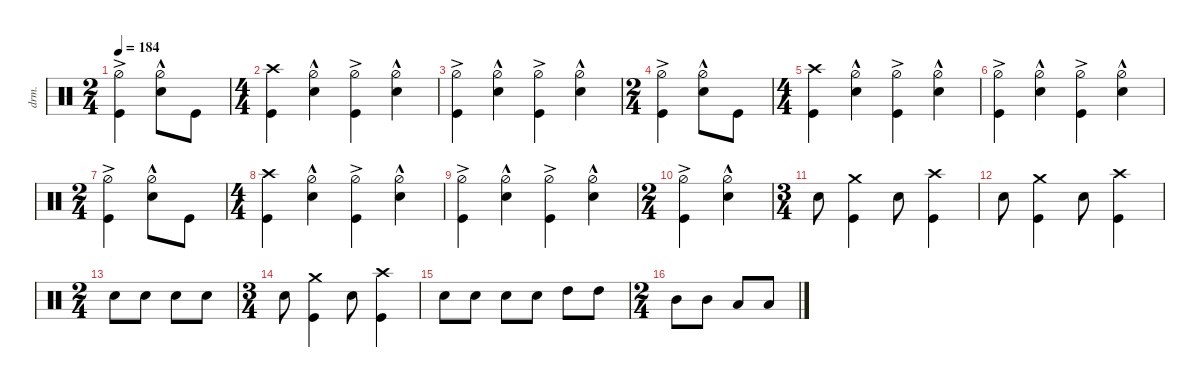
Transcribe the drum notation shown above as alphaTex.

\defaultSystemsLayout 4
\hideDynamics
\bracketExtendMode nobrackets
\otherSystemsTrackNameOrientation horizontal
\track ("Drums" "drm.") {defaultSystemsLayout 4 multiBarRest instrument percussion}
\staff {score}
\articulation defaults
\ts (2 4)
\beaming (8 2 2 2 2)
\tempo 184
\clef neutral
\ks c
("Hi-Hat (half)"{ac} "Kick (hit)").4{dy f} ("Hi-Hat (half)"{hac} "Snare (hit) 2").8 "Kick (hit)".8 |
\ts (4 4)
\beaming (8 2 2 2 2)
("Crash high (hit)" "Kick (hit)").4 ("Hi-Hat (half)"{hac} "Snare (hit) 2").4 ("Hi-Hat (half)"{ac} "Kick (hit)").4 ("Hi-Hat (half)"{hac} "Snare (hit) 2").4 |
("Hi-Hat (half)"{ac} "Kick (hit)").4 ("Hi-Hat (half)"{hac} "Snare (hit) 2").4 ("Hi-Hat (half)"{ac} "Kick (hit)").4 ("Hi-Hat (half)"{hac} "Snare (hit) 2").4 |
\ts (2 4)
\beaming (8 2 2 2 2)
("Hi-Hat (half)"{ac} "Kick (hit)").4 ("Hi-Hat (half)"{hac} "Snare (hit) 2").8 "Kick (hit)".8 |
\ts (4 4)
\beaming (8 2 2 2 2)
("Crash high (hit)" "Kick (hit)").4 ("Hi-Hat (half)"{hac} "Snare (hit) 2").4 ("Hi-Hat (half)"{ac} "Kick (hit)").4 ("Hi-Hat (half)"{hac} "Snare (hit) 2").4 |
("Hi-Hat (half)"{ac} "Kick (hit)").4 ("Hi-Hat (half)"{hac} "Snare (hit) 2").4 ("Hi-Hat (half)"{ac} "Kick (hit)").4 ("Hi-Hat (half)"{hac} "Snare (hit) 2").4 |
\ts (2 4)
\beaming (8 2 2 2 2)
("Hi-Hat (half)"{ac} "Kick (hit)").4 ("Hi-Hat (half)"{hac} "Snare (hit) 2").8 "Kick (hit)".8 |
\ts (4 4)
\beaming (8 2 2 2 2)
("Crash high (hit)" "Kick (hit)").4 ("Hi-Hat (half)"{hac} "Snare (hit) 2").4 ("Hi-Hat (half)"{ac} "Kick (hit)").4 ("Hi-Hat (half)"{hac} "Snare (hit) 2").4 |
("Hi-Hat (half)"{ac} "Kick (hit)").4 ("Hi-Hat (half)"{hac} "Snare (hit) 2").4 ("Hi-Hat (half)"{ac} "Kick (hit)").4 ("Hi-Hat (half)"{hac} "Snare (hit) 2").4 |
\ts (2 4)
\beaming (8 2 2 2 2)
("Hi-Hat (half)"{ac} "Kick (hit)").4 ("Hi-Hat (half)"{hac} "Snare (hit) 2").4 |
\ts (3 4)
\beaming (8 2 2 2 2)
"Snare (hit) 2".8 ("Crash medium (hit)" "Kick (hit)").4 "Snare (hit) 2".8 ("Crash high (hit)" "Kick (hit)").4 |
"Snare (hit) 2".8 ("Crash medium (hit)" "Kick (hit)").4 "Snare (hit) 2".8 ("Crash high (hit)" "Kick (hit)").4 |
\ts (2 4)
\beaming (8 2 2 2 2)
"Snare (hit) 2".8 "Snare (hit) 2".8 "Snare (hit) 2".8 "Snare (hit) 2".8 |
\ts (3 4)
\beaming (8 2 2 2 2)
"Snare (hit) 2".8 ("Crash medium (hit)" "Kick (hit)").4 "Snare (hit) 2".8 ("Crash high (hit)" "Kick (hit)").4 |
"Snare (hit) 2".8 "Snare (hit) 2".8 "Snare (hit) 2".8 "Snare (hit) 2".8 "High Tom (hit)".8{dy ff} "High Tom (hit)".8 |
\ts (2 4)
\beaming (8 2 2 2 2)
"Mid Tom (hit)".8 "Mid Tom (hit)".8 "Low Tom (hit)".8 "Low Tom (hit)".8
